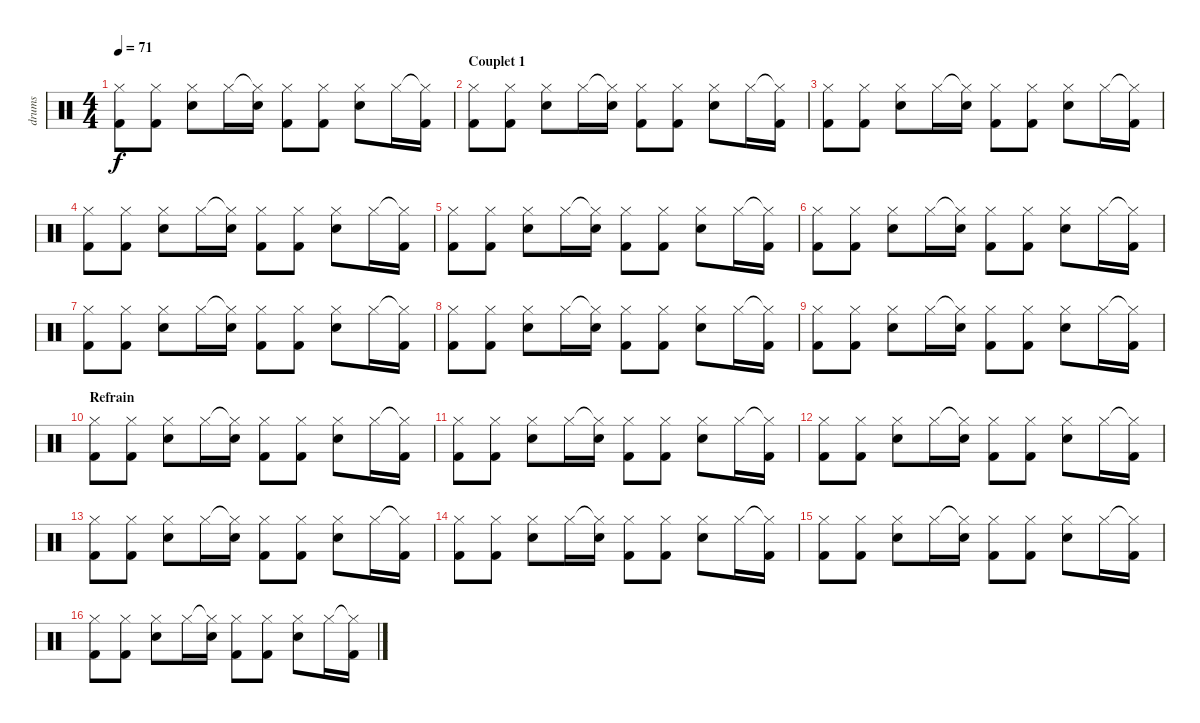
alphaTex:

\track ("drums" "drums") {instrument percussion}
\staff {score}
\articulation defaults
\ts (4 4)
\tempo 71
\clef neutral
\ks c
("Hi-Hat (closed)" "Kick (hit) 2").8{dy f} ("Hi-Hat (closed)" "Kick (hit) 2").8 ("Hi-Hat (closed)" "Snare (hit) 2").8 "Hi-Hat (closed)".16 ("Hi-Hat (closed)"{t} "Snare (hit) 2").16 ("Hi-Hat (closed)" "Kick (hit) 2").8 ("Hi-Hat (closed)" "Kick (hit) 2").8 ("Hi-Hat (closed)" "Snare (hit) 2").8 "Hi-Hat (closed)".16 ("Hi-Hat (closed)"{t} "Kick (hit) 2").16 |
\section ("" "Couplet 1")
("Hi-Hat (closed)" "Kick (hit) 2").8 ("Hi-Hat (closed)" "Kick (hit) 2").8 ("Hi-Hat (closed)" "Snare (hit) 2").8 "Hi-Hat (closed)".16 ("Hi-Hat (closed)"{t} "Snare (hit) 2").16 ("Hi-Hat (closed)" "Kick (hit) 2").8 ("Hi-Hat (closed)" "Kick (hit) 2").8 ("Hi-Hat (closed)" "Snare (hit) 2").8 "Hi-Hat (closed)".16 ("Hi-Hat (closed)"{t} "Kick (hit) 2").16 |
("Hi-Hat (closed)" "Kick (hit) 2").8 ("Hi-Hat (closed)" "Kick (hit) 2").8 ("Hi-Hat (closed)" "Snare (hit) 2").8 "Hi-Hat (closed)".16 ("Hi-Hat (closed)"{t} "Snare (hit) 2").16 ("Hi-Hat (closed)" "Kick (hit) 2").8 ("Hi-Hat (closed)" "Kick (hit) 2").8 ("Hi-Hat (closed)" "Snare (hit) 2").8 "Hi-Hat (closed)".16 ("Hi-Hat (closed)"{t} "Kick (hit) 2").16 |
("Hi-Hat (closed)" "Kick (hit) 2").8 ("Hi-Hat (closed)" "Kick (hit) 2").8 ("Hi-Hat (closed)" "Snare (hit) 2").8 "Hi-Hat (closed)".16 ("Hi-Hat (closed)"{t} "Snare (hit) 2").16 ("Hi-Hat (closed)" "Kick (hit) 2").8 ("Hi-Hat (closed)" "Kick (hit) 2").8 ("Hi-Hat (closed)" "Snare (hit) 2").8 "Hi-Hat (closed)".16 ("Hi-Hat (closed)"{t} "Kick (hit) 2").16 |
("Hi-Hat (closed)" "Kick (hit) 2").8 ("Hi-Hat (closed)" "Kick (hit) 2").8 ("Hi-Hat (closed)" "Snare (hit) 2").8 "Hi-Hat (closed)".16 ("Hi-Hat (closed)"{t} "Snare (hit) 2").16 ("Hi-Hat (closed)" "Kick (hit) 2").8 ("Hi-Hat (closed)" "Kick (hit) 2").8 ("Hi-Hat (closed)" "Snare (hit) 2").8 "Hi-Hat (closed)".16 ("Hi-Hat (closed)"{t} "Kick (hit) 2").16 |
("Hi-Hat (closed)" "Kick (hit) 2").8 ("Hi-Hat (closed)" "Kick (hit) 2").8 ("Hi-Hat (closed)" "Snare (hit) 2").8 "Hi-Hat (closed)".16 ("Hi-Hat (closed)"{t} "Snare (hit) 2").16 ("Hi-Hat (closed)" "Kick (hit) 2").8 ("Hi-Hat (closed)" "Kick (hit) 2").8 ("Hi-Hat (closed)" "Snare (hit) 2").8 "Hi-Hat (closed)".16 ("Hi-Hat (closed)"{t} "Kick (hit) 2").16 |
("Hi-Hat (closed)" "Kick (hit) 2").8 ("Hi-Hat (closed)" "Kick (hit) 2").8 ("Hi-Hat (closed)" "Snare (hit) 2").8 "Hi-Hat (closed)".16 ("Hi-Hat (closed)"{t} "Snare (hit) 2").16 ("Hi-Hat (closed)" "Kick (hit) 2").8 ("Hi-Hat (closed)" "Kick (hit) 2").8 ("Hi-Hat (closed)" "Snare (hit) 2").8 "Hi-Hat (closed)".16 ("Hi-Hat (closed)"{t} "Kick (hit) 2").16 |
("Hi-Hat (closed)" "Kick (hit) 2").8 ("Hi-Hat (closed)" "Kick (hit) 2").8 ("Hi-Hat (closed)" "Snare (hit) 2").8 "Hi-Hat (closed)".16 ("Hi-Hat (closed)"{t} "Snare (hit) 2").16 ("Hi-Hat (closed)" "Kick (hit) 2").8 ("Hi-Hat (closed)" "Kick (hit) 2").8 ("Hi-Hat (closed)" "Snare (hit) 2").8 "Hi-Hat (closed)".16 ("Hi-Hat (closed)"{t} "Kick (hit) 2").16 |
("Hi-Hat (closed)" "Kick (hit) 2").8 ("Hi-Hat (closed)" "Kick (hit) 2").8 ("Hi-Hat (closed)" "Snare (hit) 2").8 "Hi-Hat (closed)".16 ("Hi-Hat (closed)"{t} "Snare (hit) 2").16 ("Hi-Hat (closed)" "Kick (hit) 2").8 ("Hi-Hat (closed)" "Kick (hit) 2").8 ("Hi-Hat (closed)" "Snare (hit) 2").8 "Hi-Hat (closed)".16 ("Hi-Hat (closed)"{t} "Kick (hit) 2").16 |
\section ("" "Refrain")
("Hi-Hat (closed)" "Kick (hit) 2").8 ("Hi-Hat (closed)" "Kick (hit) 2").8 ("Hi-Hat (closed)" "Snare (hit) 2").8 "Hi-Hat (closed)".16 ("Hi-Hat (closed)"{t} "Snare (hit) 2").16 ("Hi-Hat (closed)" "Kick (hit) 2").8 ("Hi-Hat (closed)" "Kick (hit) 2").8 ("Hi-Hat (closed)" "Snare (hit) 2").8 "Hi-Hat (closed)".16 ("Hi-Hat (closed)"{t} "Kick (hit) 2").16 |
("Hi-Hat (closed)" "Kick (hit) 2").8 ("Hi-Hat (closed)" "Kick (hit) 2").8 ("Hi-Hat (closed)" "Snare (hit) 2").8 "Hi-Hat (closed)".16 ("Hi-Hat (closed)"{t} "Snare (hit) 2").16 ("Hi-Hat (closed)" "Kick (hit) 2").8 ("Hi-Hat (closed)" "Kick (hit) 2").8 ("Hi-Hat (closed)" "Snare (hit) 2").8 "Hi-Hat (closed)".16 ("Hi-Hat (closed)"{t} "Kick (hit) 2").16 |
("Hi-Hat (closed)" "Kick (hit) 2").8 ("Hi-Hat (closed)" "Kick (hit) 2").8 ("Hi-Hat (closed)" "Snare (hit) 2").8 "Hi-Hat (closed)".16 ("Hi-Hat (closed)"{t} "Snare (hit) 2").16 ("Hi-Hat (closed)" "Kick (hit) 2").8 ("Hi-Hat (closed)" "Kick (hit) 2").8 ("Hi-Hat (closed)" "Snare (hit) 2").8 "Hi-Hat (closed)".16 ("Hi-Hat (closed)"{t} "Kick (hit) 2").16 |
("Hi-Hat (closed)" "Kick (hit) 2").8 ("Hi-Hat (closed)" "Kick (hit) 2").8 ("Hi-Hat (closed)" "Snare (hit) 2").8 "Hi-Hat (closed)".16 ("Hi-Hat (closed)"{t} "Snare (hit) 2").16 ("Hi-Hat (closed)" "Kick (hit) 2").8 ("Hi-Hat (closed)" "Kick (hit) 2").8 ("Hi-Hat (closed)" "Snare (hit) 2").8 "Hi-Hat (closed)".16 ("Hi-Hat (closed)"{t} "Kick (hit) 2").16 |
("Hi-Hat (closed)" "Kick (hit) 2").8 ("Hi-Hat (closed)" "Kick (hit) 2").8 ("Hi-Hat (closed)" "Snare (hit) 2").8 "Hi-Hat (closed)".16 ("Hi-Hat (closed)"{t} "Snare (hit) 2").16 ("Hi-Hat (closed)" "Kick (hit) 2").8 ("Hi-Hat (closed)" "Kick (hit) 2").8 ("Hi-Hat (closed)" "Snare (hit) 2").8 "Hi-Hat (closed)".16 ("Hi-Hat (closed)"{t} "Kick (hit) 2").16 |
("Hi-Hat (closed)" "Kick (hit) 2").8 ("Hi-Hat (closed)" "Kick (hit) 2").8 ("Hi-Hat (closed)" "Snare (hit) 2").8 "Hi-Hat (closed)".16 ("Hi-Hat (closed)"{t} "Snare (hit) 2").16 ("Hi-Hat (closed)" "Kick (hit) 2").8 ("Hi-Hat (closed)" "Kick (hit) 2").8 ("Hi-Hat (closed)" "Snare (hit) 2").8 "Hi-Hat (closed)".16 ("Hi-Hat (closed)"{t} "Kick (hit) 2").16 |
("Hi-Hat (closed)" "Kick (hit) 2").8 ("Hi-Hat (closed)" "Kick (hit) 2").8 ("Hi-Hat (closed)" "Snare (hit) 2").8 "Hi-Hat (closed)".16 ("Hi-Hat (closed)"{t} "Snare (hit) 2").16 ("Hi-Hat (closed)" "Kick (hit) 2").8 ("Hi-Hat (closed)" "Kick (hit) 2").8 ("Hi-Hat (closed)" "Snare (hit) 2").8 "Hi-Hat (closed)".16 ("Hi-Hat (closed)"{t} "Kick (hit) 2").16
